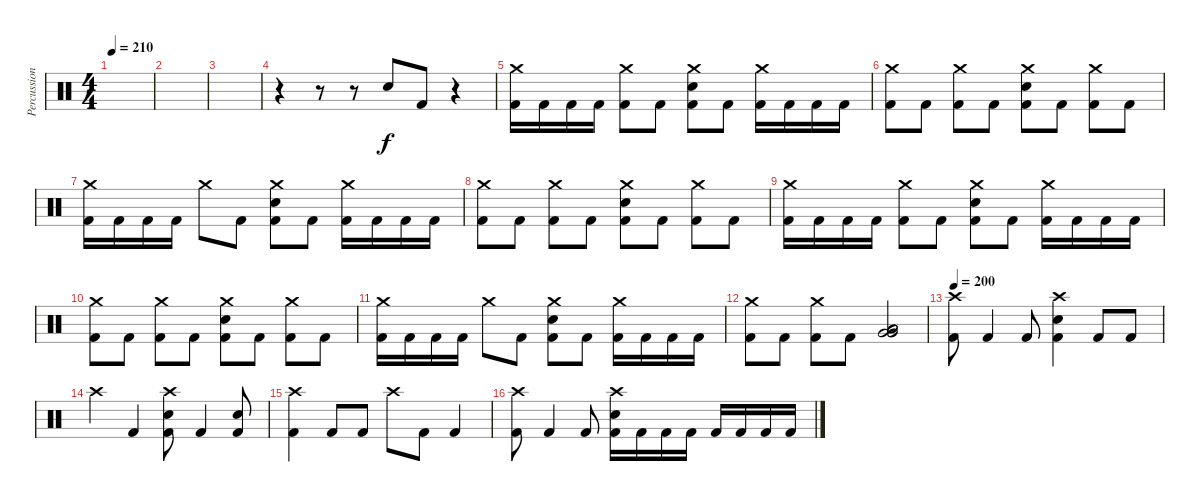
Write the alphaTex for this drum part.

\track ("Percussion" "Percussion") {instrument percussion}
\staff {score}
\articulation defaults
\ts (4 4)
\tempo 210
\clef neutral
\ks c
|
|
|
r.4 r.8 r.8 "Electric Snare (hit)".8 "Kick (hit) 2".8 r.4 |
("Crash medium (hit)" "Kick (hit) 2").16 "Kick (hit) 2".16 "Kick (hit) 2".16 "Kick (hit) 2".16 ("Crash medium (hit)" "Kick (hit) 2").8 "Kick (hit) 2".8 ("Crash medium (hit)" "Electric Snare (hit)" "Kick (hit) 2").8 "Kick (hit) 2".8 ("Crash medium (hit)" "Kick (hit) 2").16 "Kick (hit) 2".16 "Kick (hit) 2".16 "Kick (hit) 2".16 |
("Crash medium (hit)" "Kick (hit) 2").8 "Kick (hit) 2".8 ("Crash medium (hit)" "Kick (hit) 2").8 "Kick (hit) 2".8 ("Crash medium (hit)" "Electric Snare (hit)" "Kick (hit) 2").8 "Kick (hit) 2".8 ("Crash medium (hit)" "Kick (hit) 2").8 "Kick (hit) 2".8 |
("Crash medium (hit)" "Kick (hit) 2").16 "Kick (hit) 2".16 "Kick (hit) 2".16 "Kick (hit) 2".16 "Crash medium (hit)".8 "Kick (hit) 2".8 ("Crash medium (hit)" "Electric Snare (hit)" "Kick (hit) 2").8 "Kick (hit) 2".8 ("Crash medium (hit)" "Kick (hit) 2").16 "Kick (hit) 2".16 "Kick (hit) 2".16 "Kick (hit) 2".16 |
("Crash medium (hit)" "Kick (hit) 2").8 "Kick (hit) 2".8 ("Crash medium (hit)" "Kick (hit) 2").8 "Kick (hit) 2".8 ("Crash medium (hit)" "Electric Snare (hit)" "Kick (hit) 2").8 "Kick (hit) 2".8 ("Crash medium (hit)" "Kick (hit) 2").8 "Kick (hit) 2".8 |
("Crash medium (hit)" "Kick (hit) 2").16 "Kick (hit) 2".16 "Kick (hit) 2".16 "Kick (hit) 2".16 ("Crash medium (hit)" "Kick (hit) 2").8 "Kick (hit) 2".8 ("Crash medium (hit)" "Electric Snare (hit)" "Kick (hit) 2").8 "Kick (hit) 2".8 ("Crash medium (hit)" "Kick (hit) 2").16 "Kick (hit) 2".16 "Kick (hit) 2".16 "Kick (hit) 2".16 |
("Crash medium (hit)" "Kick (hit) 2").8 "Kick (hit) 2".8 ("Crash medium (hit)" "Kick (hit) 2").8 "Kick (hit) 2".8 ("Crash medium (hit)" "Electric Snare (hit)" "Kick (hit) 2").8 "Kick (hit) 2".8 ("Crash medium (hit)" "Kick (hit) 2").8 "Kick (hit) 2".8 |
("Crash medium (hit)" "Kick (hit) 2").16 "Kick (hit) 2".16 "Kick (hit) 2".16 "Kick (hit) 2".16 "Crash medium (hit)".8 "Kick (hit) 2".8 ("Crash medium (hit)" "Electric Snare (hit)" "Kick (hit) 2").8 "Kick (hit) 2".8 ("Crash medium (hit)" "Kick (hit) 2").16 "Kick (hit) 2".16 "Kick (hit) 2".16 "Kick (hit) 2".16 |
("Crash medium (hit)" "Kick (hit) 2").8 "Kick (hit) 2".8 ("Crash medium (hit)" "Kick (hit) 2").8 "Kick (hit) 2".8 ("Very Low Tom (hit)" "Very Low Tom (hit)" "Low Floor Tom (hit)" "Low Floor Tom (hit)" "Low Floor Tom (hit)" "Very Low Tom (hit)").2 |
\tempo 200
("Crash high (hit)" "Kick (hit) 2").8 "Kick (hit) 2".4 "Kick (hit) 2".8 ("Crash high (hit)" "Electric Snare (hit)" "Kick (hit) 2").4 "Kick (hit) 2".8 "Kick (hit) 2".8 |
"Crash high (hit)".4 "Kick (hit) 2".4 ("Crash high (hit)" "Electric Snare (hit)" "Kick (hit) 2").8 "Kick (hit) 2".4 ("Electric Snare (hit)" "Kick (hit) 2").8 |
("Crash high (hit)" "Kick (hit) 2").4 "Kick (hit) 2".8 "Kick (hit) 2".8 "Crash high (hit)".8 "Kick (hit) 2".8 "Kick (hit) 2".4 |
("Crash high (hit)" "Kick (hit) 2").8 "Kick (hit) 2".4 "Kick (hit) 2".8 ("Crash high (hit)" "Electric Snare (hit)" "Kick (hit) 2").16 "Kick (hit) 2".16 "Kick (hit) 2".16 "Kick (hit) 2".16 "Kick (hit) 2".16 "Kick (hit) 2".16 "Kick (hit) 2".16 "Kick (hit) 2".16
